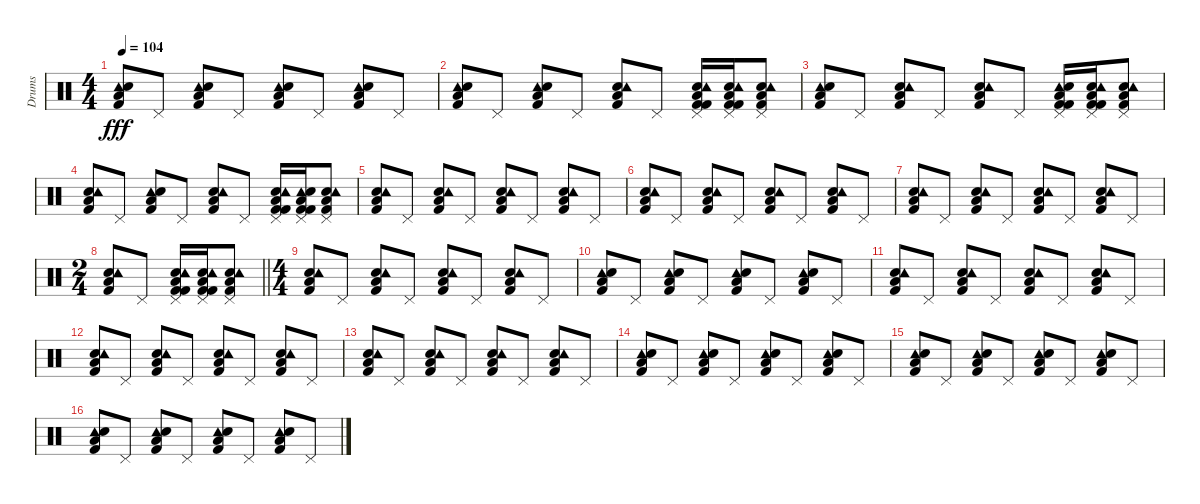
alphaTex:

\track ("Drums" "Drums") {instrument percussion}
\staff {score}
\articulation defaults
\ts (4 4)
\tempo 104
\clef neutral
\ks c
("Tambourine (hit)" "Low Floor Tom (hit)" "Kick (hit) 2" "Snare (hit) 2").8{dy fff} "Pedal Hi-Hat (hit)".8 ("Tambourine (hit)" "Low Floor Tom (hit)" "Snare (hit) 2" "Kick (hit) 2").8 "Pedal Hi-Hat (hit)".8 ("Tambourine (hit)" "Low Floor Tom (hit)" "Snare (hit) 2" "Kick (hit) 2").8 "Pedal Hi-Hat (hit)".8 ("Tambourine (hit)" "Low Floor Tom (hit)" "Snare (hit) 2" "Kick (hit) 2").8 "Pedal Hi-Hat (hit)".8 |
("Tambourine (hit)" "Snare (hit) 2" "Kick (hit) 2" "Low Floor Tom (hit)").8 "Pedal Hi-Hat (hit)".8 ("Tambourine (hit)" "Kick (hit) 2" "Low Floor Tom (hit)" "Snare (hit) 2").8 "Pedal Hi-Hat (hit)".8 ("Low Floor Tom (hit)" "Kick (hit) 2" "Snare (hit) 2" "Tambourine (hit)").8 "Pedal Hi-Hat (hit)".8 ("Kick (hit) 2" "Kick (hit) 2" "Snare (hit) 2" "Low Floor Tom (hit)" "Pedal Hi-Hat (hit)" "Tambourine (hit)").16 ("Pedal Hi-Hat (hit)" "Low Floor Tom (hit)" "Snare (hit) 2" "Kick (hit) 2" "Kick (hit) 2" "Tambourine (hit)").16 ("Pedal Hi-Hat (hit)" "Low Floor Tom (hit)" "Kick (hit) 2" "Snare (hit) 2" "Tambourine (hit)").8 |
("Tambourine (hit)" "Snare (hit) 2" "Kick (hit) 2" "Low Floor Tom (hit)").8 "Pedal Hi-Hat (hit)".8 ("Snare (hit) 2" "Tambourine (hit)" "Kick (hit) 2" "Low Floor Tom (hit)").8 "Pedal Hi-Hat (hit)".8 ("Low Floor Tom (hit)" "Kick (hit) 2" "Snare (hit) 2" "Tambourine (hit)").8 "Pedal Hi-Hat (hit)".8 ("Tambourine (hit)" "Kick (hit) 2" "Kick (hit) 2" "Snare (hit) 2" "Low Floor Tom (hit)" "Pedal Hi-Hat (hit)").16 ("Pedal Hi-Hat (hit)" "Low Floor Tom (hit)" "Snare (hit) 2" "Kick (hit) 2" "Kick (hit) 2" "Tambourine (hit)").16 ("Pedal Hi-Hat (hit)" "Low Floor Tom (hit)" "Kick (hit) 2" "Snare (hit) 2" "Tambourine (hit)").8 |
("Low Floor Tom (hit)" "Kick (hit) 2" "Snare (hit) 2" "Tambourine (hit)").8 "Pedal Hi-Hat (hit)".8 ("Low Floor Tom (hit)" "Kick (hit) 2" "Tambourine (hit)" "Snare (hit) 2").8 "Pedal Hi-Hat (hit)".8 ("Snare (hit) 2" "Kick (hit) 2" "Low Floor Tom (hit)" "Tambourine (hit)").8 "Pedal Hi-Hat (hit)".8 ("Pedal Hi-Hat (hit)" "Low Floor Tom (hit)" "Snare (hit) 2" "Kick (hit) 2" "Kick (hit) 2" "Tambourine (hit)").16 ("Tambourine (hit)" "Kick (hit) 2" "Kick (hit) 2" "Snare (hit) 2" "Low Floor Tom (hit)" "Pedal Hi-Hat (hit)").16 ("Snare (hit) 2" "Kick (hit) 2" "Low Floor Tom (hit)" "Pedal Hi-Hat (hit)" "Tambourine (hit)").8 |
("Snare (hit) 2" "Kick (hit) 2" "Low Floor Tom (hit)" "Tambourine (hit)").8 "Pedal Hi-Hat (hit)".8 ("Kick (hit) 2" "Snare (hit) 2" "Low Floor Tom (hit)" "Tambourine (hit)").8 "Pedal Hi-Hat (hit)".8 ("Kick (hit) 2" "Snare (hit) 2" "Low Floor Tom (hit)" "Tambourine (hit)").8 "Pedal Hi-Hat (hit)".8 ("Kick (hit) 2" "Snare (hit) 2" "Low Floor Tom (hit)" "Tambourine (hit)").8 "Pedal Hi-Hat (hit)".8 |
("Snare (hit) 2" "Kick (hit) 2" "Low Floor Tom (hit)" "Tambourine (hit)").8 "Pedal Hi-Hat (hit)".8 ("Snare (hit) 2" "Low Floor Tom (hit)" "Tambourine (hit)" "Kick (hit) 2").8 "Pedal Hi-Hat (hit)".8 ("Kick (hit) 2" "Snare (hit) 2" "Low Floor Tom (hit)" "Tambourine (hit)").8 "Pedal Hi-Hat (hit)".8 ("Kick (hit) 2" "Snare (hit) 2" "Low Floor Tom (hit)" "Tambourine (hit)").8 "Pedal Hi-Hat (hit)".8 |
("Snare (hit) 2" "Kick (hit) 2" "Low Floor Tom (hit)" "Tambourine (hit)").8 "Pedal Hi-Hat (hit)".8 ("Snare (hit) 2" "Low Floor Tom (hit)" "Tambourine (hit)" "Kick (hit) 2").8 "Pedal Hi-Hat (hit)".8 ("Kick (hit) 2" "Snare (hit) 2" "Low Floor Tom (hit)" "Tambourine (hit)").8 "Pedal Hi-Hat (hit)".8 ("Kick (hit) 2" "Snare (hit) 2" "Low Floor Tom (hit)" "Tambourine (hit)").8 "Pedal Hi-Hat (hit)".8 |
\ts (2 4)
\barLineRight lightlight
("Low Floor Tom (hit)" "Kick (hit) 2" "Snare (hit) 2" "Tambourine (hit)").8 "Pedal Hi-Hat (hit)".8 ("Kick (hit) 2" "Snare (hit) 2" "Low Floor Tom (hit)" "Pedal Hi-Hat (hit)" "Tambourine (hit)" "Kick (hit) 2").16 ("Low Floor Tom (hit)" "Snare (hit) 2" "Kick (hit) 2" "Kick (hit) 2" "Tambourine (hit)" "Pedal Hi-Hat (hit)").16 ("Pedal Hi-Hat (hit)" "Low Floor Tom (hit)" "Kick (hit) 2" "Snare (hit) 2" "Tambourine (hit)").8 |
\ts (4 4)
("Snare (hit) 2" "Kick (hit) 2" "Low Floor Tom (hit)" "Tambourine (hit)").8 "Pedal Hi-Hat (hit)".8 ("Kick (hit) 2" "Snare (hit) 2" "Low Floor Tom (hit)" "Tambourine (hit)").8 "Pedal Hi-Hat (hit)".8 ("Kick (hit) 2" "Snare (hit) 2" "Low Floor Tom (hit)" "Tambourine (hit)").8 "Pedal Hi-Hat (hit)".8 ("Kick (hit) 2" "Snare (hit) 2" "Low Floor Tom (hit)" "Tambourine (hit)").8 "Pedal Hi-Hat (hit)".8 |
("Tambourine (hit)" "Low Floor Tom (hit)" "Kick (hit) 2" "Snare (hit) 2").8 "Pedal Hi-Hat (hit)".8 ("Tambourine (hit)" "Low Floor Tom (hit)" "Snare (hit) 2" "Kick (hit) 2").8 "Pedal Hi-Hat (hit)".8 ("Tambourine (hit)" "Low Floor Tom (hit)" "Snare (hit) 2" "Kick (hit) 2").8 "Pedal Hi-Hat (hit)".8 ("Tambourine (hit)" "Low Floor Tom (hit)" "Snare (hit) 2" "Kick (hit) 2").8 "Pedal Hi-Hat (hit)".8 |
("Snare (hit) 2" "Kick (hit) 2" "Low Floor Tom (hit)" "Tambourine (hit)").8 "Pedal Hi-Hat (hit)".8 ("Kick (hit) 2" "Snare (hit) 2" "Low Floor Tom (hit)" "Tambourine (hit)").8 "Pedal Hi-Hat (hit)".8 ("Kick (hit) 2" "Snare (hit) 2" "Low Floor Tom (hit)" "Tambourine (hit)").8 "Pedal Hi-Hat (hit)".8 ("Kick (hit) 2" "Snare (hit) 2" "Low Floor Tom (hit)" "Tambourine (hit)").8 "Pedal Hi-Hat (hit)".8 |
("Snare (hit) 2" "Kick (hit) 2" "Low Floor Tom (hit)" "Tambourine (hit)").8 "Pedal Hi-Hat (hit)".8 ("Kick (hit) 2" "Snare (hit) 2" "Low Floor Tom (hit)" "Tambourine (hit)").8 "Pedal Hi-Hat (hit)".8 ("Kick (hit) 2" "Snare (hit) 2" "Low Floor Tom (hit)" "Tambourine (hit)").8 "Pedal Hi-Hat (hit)".8 ("Kick (hit) 2" "Snare (hit) 2" "Low Floor Tom (hit)" "Tambourine (hit)").8 "Pedal Hi-Hat (hit)".8 |
("Snare (hit) 2" "Kick (hit) 2" "Low Floor Tom (hit)" "Tambourine (hit)").8 "Pedal Hi-Hat (hit)".8 ("Kick (hit) 2" "Snare (hit) 2" "Low Floor Tom (hit)" "Tambourine (hit)").8 "Pedal Hi-Hat (hit)".8 ("Kick (hit) 2" "Snare (hit) 2" "Low Floor Tom (hit)" "Tambourine (hit)").8 "Pedal Hi-Hat (hit)".8 ("Kick (hit) 2" "Snare (hit) 2" "Low Floor Tom (hit)" "Tambourine (hit)").8 "Pedal Hi-Hat (hit)".8 |
("Tambourine (hit)" "Low Floor Tom (hit)" "Kick (hit) 2" "Snare (hit) 2").8 "Pedal Hi-Hat (hit)".8 ("Kick (hit) 2" "Tambourine (hit)" "Low Floor Tom (hit)" "Snare (hit) 2").8 "Pedal Hi-Hat (hit)".8 ("Tambourine (hit)" "Low Floor Tom (hit)" "Snare (hit) 2" "Kick (hit) 2").8 "Pedal Hi-Hat (hit)".8 ("Tambourine (hit)" "Low Floor Tom (hit)" "Snare (hit) 2" "Kick (hit) 2").8 "Pedal Hi-Hat (hit)".8 |
("Tambourine (hit)" "Low Floor Tom (hit)" "Kick (hit) 2" "Snare (hit) 2").8 "Pedal Hi-Hat (hit)".8 ("Tambourine (hit)" "Low Floor Tom (hit)" "Snare (hit) 2" "Kick (hit) 2").8 "Pedal Hi-Hat (hit)".8 ("Tambourine (hit)" "Low Floor Tom (hit)" "Snare (hit) 2" "Kick (hit) 2").8 "Pedal Hi-Hat (hit)".8 ("Tambourine (hit)" "Low Floor Tom (hit)" "Snare (hit) 2" "Kick (hit) 2").8 "Pedal Hi-Hat (hit)".8 |
("Tambourine (hit)" "Low Floor Tom (hit)" "Kick (hit) 2" "Snare (hit) 2").8 "Pedal Hi-Hat (hit)".8 ("Tambourine (hit)" "Low Floor Tom (hit)" "Snare (hit) 2" "Kick (hit) 2").8 "Pedal Hi-Hat (hit)".8 ("Tambourine (hit)" "Low Floor Tom (hit)" "Snare (hit) 2" "Kick (hit) 2").8 "Pedal Hi-Hat (hit)".8 ("Tambourine (hit)" "Low Floor Tom (hit)" "Snare (hit) 2" "Kick (hit) 2").8 "Pedal Hi-Hat (hit)".8
